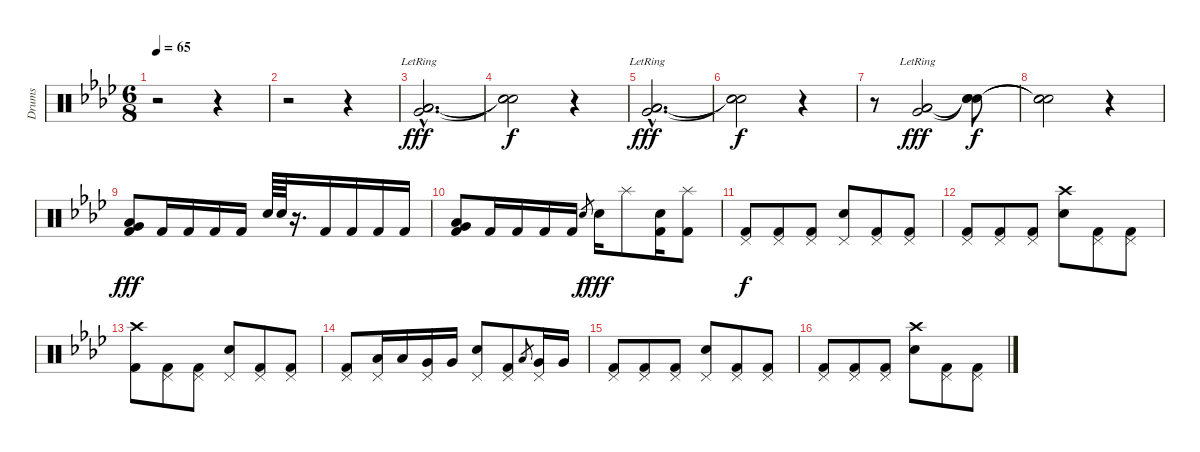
\track ("Drums" "Drums") {instrument percussion}
\staff {score}
\articulation defaults
\ts (6 8)
\tempo 65
\clef neutral
\ks ab
r.2{dy f} r.4 |
r.2 r.4 |
("Low Tom (hit)"{hac lr} "Very Low Tom (hit)"{hac lr} "Low Floor Tom (hit)"{hac lr}).2{d dy fff} |
("Snare (hit)"{t} "Snare (hit)"{t} "Snare (hit)"{t}).2{dy f} r.4 |
("Low Tom (hit)"{hac lr} "Very Low Tom (hit)"{hac lr} "Low Floor Tom (hit)"{hac lr}).2{d dy fff} |
("Snare (hit)"{t} "Snare (hit)"{t} "Snare (hit)"{t}).2{dy f} r.4 |
r.8 ("Low Tom (hit)"{lr} "Very Low Tom (hit)"{lr} "Low Floor Tom (hit)"{lr}).2{dy fff} ("Snare (hit)"{t} "Snare (hit)"{t} "Snare (hit)"{t}).8{dy f} |
("Snare (hit)"{t} "Snare (hit)"{t} "Snare (hit)"{t}).2 r.4 |
("Low Tom (hit)" "Very Low Tom (hit)" "Kick (hit) 2").8{dy fff} "Kick (hit) 2".16 "Kick (hit) 2".16 "Kick (hit) 2".16 "Kick (hit) 2".16 "Electric Snare (hit)".64 "Electric Snare (hit)".64 r.16{d} "Kick (hit) 2".16 "Kick (hit) 2".16 "Kick (hit) 2".16 "Kick (hit) 2".16 |
("Low Tom (hit)" "Very Low Tom (hit)" "Kick (hit) 2").8 "Kick (hit) 2".16 "Kick (hit) 2".16 "Kick (hit) 2".16 "Kick (hit) 2".16 "Electric Snare (hit)".8{gr dy f} "Electric Snare (hit)".16{dy fff} "Splash (hit)".8 ("Electric Snare (hit)" "Kick (hit) 2").16 ("Splash (hit)" "Kick (hit) 2").8 |
("Pedal Hi-Hat (hit)" "Kick (hit) 2").8{dy f} ("Pedal Hi-Hat (hit)" "Kick (hit) 2").8 ("Pedal Hi-Hat (hit)" "Kick (hit) 2").8 ("Pedal Hi-Hat (hit)" "Electric Snare (hit)").8 ("Pedal Hi-Hat (hit)" "Kick (hit) 2").8 ("Pedal Hi-Hat (hit)" "Kick (hit) 2").8 |
("Pedal Hi-Hat (hit)" "Kick (hit) 2").8 ("Pedal Hi-Hat (hit)" "Kick (hit) 2").8 ("Pedal Hi-Hat (hit)" "Kick (hit) 2").8 ("Crash high (hit)" "Electric Snare (hit)").8 ("Pedal Hi-Hat (hit)" "Kick (hit) 2").8 ("Pedal Hi-Hat (hit)" "Kick (hit) 2").8 |
("Crash high (hit)" "Kick (hit) 2").8 ("Pedal Hi-Hat (hit)" "Kick (hit) 2").8 ("Pedal Hi-Hat (hit)" "Kick (hit) 2").8 ("Pedal Hi-Hat (hit)" "Electric Snare (hit)").8 ("Pedal Hi-Hat (hit)" "Kick (hit) 2").8 ("Pedal Hi-Hat (hit)" "Kick (hit) 2").8 |
("Pedal Hi-Hat (hit)" "Kick (hit) 2").8 ("Pedal Hi-Hat (hit)" "Low Tom (hit)").16 "Low Tom (hit)".16 ("Pedal Hi-Hat (hit)" "Very Low Tom (hit)").16 "Very Low Tom (hit)".16 ("Pedal Hi-Hat (hit)" "Electric Snare (hit)").8 ("Pedal Hi-Hat (hit)" "Kick (hit) 2").8 "Low Tom (hit)".8{gr} ("Pedal Hi-Hat (hit)" "Very Low Tom (hit)").16 "Very Low Tom (hit)".16 |
("Pedal Hi-Hat (hit)" "Kick (hit) 2").8 ("Pedal Hi-Hat (hit)" "Kick (hit) 2").8 ("Pedal Hi-Hat (hit)" "Kick (hit) 2").8 ("Pedal Hi-Hat (hit)" "Electric Snare (hit)").8 ("Pedal Hi-Hat (hit)" "Kick (hit) 2").8 ("Pedal Hi-Hat (hit)" "Kick (hit) 2").8 |
("Pedal Hi-Hat (hit)" "Kick (hit) 2").8 ("Pedal Hi-Hat (hit)" "Kick (hit) 2").8 ("Pedal Hi-Hat (hit)" "Kick (hit) 2").8 ("Crash high (hit)" "Electric Snare (hit)").8 ("Pedal Hi-Hat (hit)" "Kick (hit) 2").8 ("Pedal Hi-Hat (hit)" "Kick (hit) 2").8
